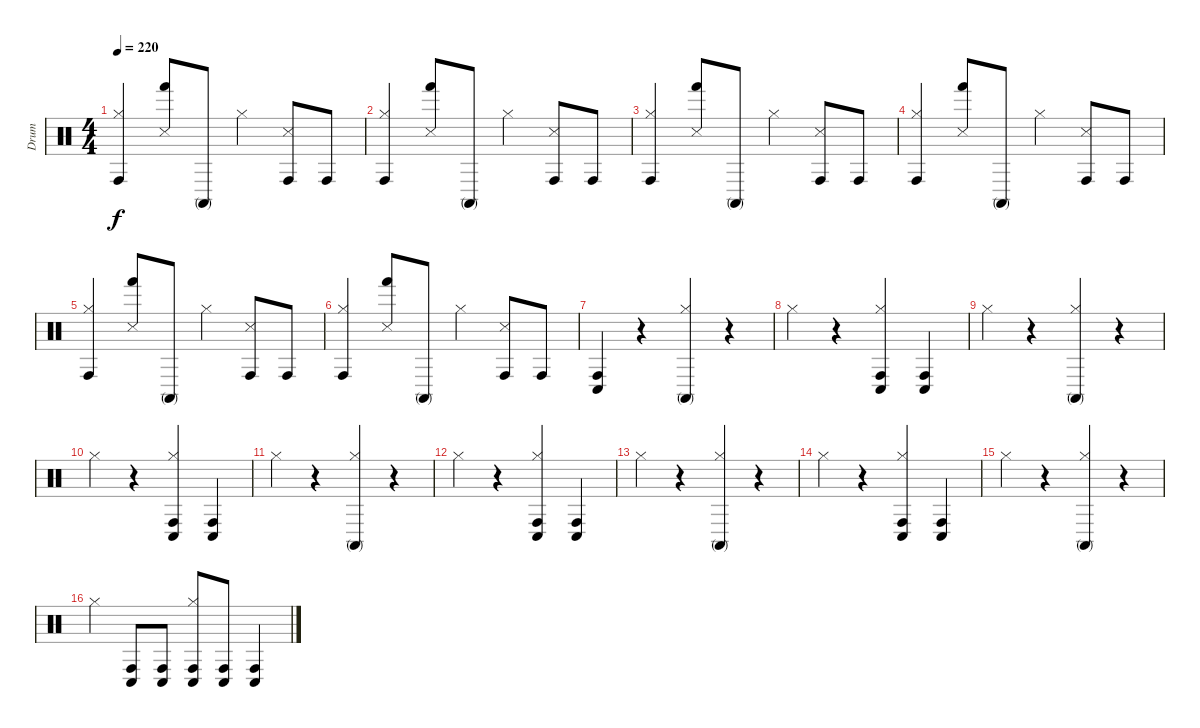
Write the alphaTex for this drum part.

\track ("Drum" "Drum") {instrument percussion}
\staff {score}
\articulation defaults
\ts (4 4)
\tempo 220
\clef neutral
\ks c
("Hi-Hat (closed)" "Conga high (hit)").4{dy f} ("Metronome (hit)" "Hand (hit)").8 "Conga high (mute)".8 "Hi-Hat (closed)".4 ("Metronome (hit)" "Conga high (hit)").8 "Conga high (hit)".8 |
("Hi-Hat (closed)" "Conga high (hit)").4 ("Metronome (hit)" "Hand (hit)").8 "Conga high (mute)".8 "Hi-Hat (closed)".4 ("Metronome (hit)" "Conga high (hit)").8 "Conga high (hit)".8 |
("Hi-Hat (closed)" "Conga high (hit)").4 ("Metronome (hit)" "Hand (hit)").8 "Conga high (mute)".8 "Hi-Hat (closed)".4 ("Metronome (hit)" "Conga high (hit)").8 "Conga high (hit)".8 |
("Hi-Hat (closed)" "Conga high (hit)").4 ("Metronome (hit)" "Hand (hit)").8 "Conga high (mute)".8 "Hi-Hat (closed)".4 ("Metronome (hit)" "Conga high (hit)").8 "Conga high (hit)".8 |
("Hi-Hat (closed)" "Conga high (hit)").4 ("Metronome (hit)" "Hand (hit)").8 "Conga high (mute)".8 "Hi-Hat (closed)".4 ("Metronome (hit)" "Conga high (hit)").8 "Conga high (hit)".8 |
("Hi-Hat (closed)" "Conga high (hit)").4 ("Metronome (hit)" "Hand (hit)").8 "Conga high (mute)".8 "Hi-Hat (closed)".4 ("Metronome (hit)" "Conga high (hit)").8 "Conga high (hit)".8 |
("Conga low (hit)" "Conga high (hit)").4 r.4 ("Hi-Hat (closed)" "Conga high (mute)").4 r.4 |
"Hi-Hat (closed)".4 r.4 ("Hi-Hat (closed)" "Conga low (hit)" "Conga high (hit)").4 ("Conga low (hit)" "Conga high (hit)").4 |
"Hi-Hat (closed)".4 r.4 ("Hi-Hat (closed)" "Conga high (mute)").4 r.4 |
"Hi-Hat (closed)".4 r.4 ("Hi-Hat (closed)" "Conga low (hit)" "Conga high (hit)").4 ("Conga low (hit)" "Conga high (hit)").4 |
"Hi-Hat (closed)".4 r.4 ("Hi-Hat (closed)" "Conga high (mute)").4 r.4 |
"Hi-Hat (closed)".4 r.4 ("Hi-Hat (closed)" "Conga low (hit)" "Conga high (hit)").4 ("Conga low (hit)" "Conga high (hit)").4 |
"Hi-Hat (closed)".4 r.4 ("Hi-Hat (closed)" "Conga high (mute)").4 r.4 |
"Hi-Hat (closed)".4 r.4 ("Hi-Hat (closed)" "Conga low (hit)" "Conga high (hit)").4 ("Conga low (hit)" "Conga high (hit)").4 |
"Hi-Hat (closed)".4 r.4 ("Hi-Hat (closed)" "Conga high (mute)").4 r.4 |
"Hi-Hat (closed)".4 ("Conga low (hit)" "Conga high (hit)").8 ("Conga low (hit)" "Conga high (hit)").8 ("Hi-Hat (closed)" "Conga low (hit)" "Conga high (hit)").8 ("Conga low (hit)" "Conga high (hit)").8 ("Conga low (hit)" "Conga high (hit)").4
